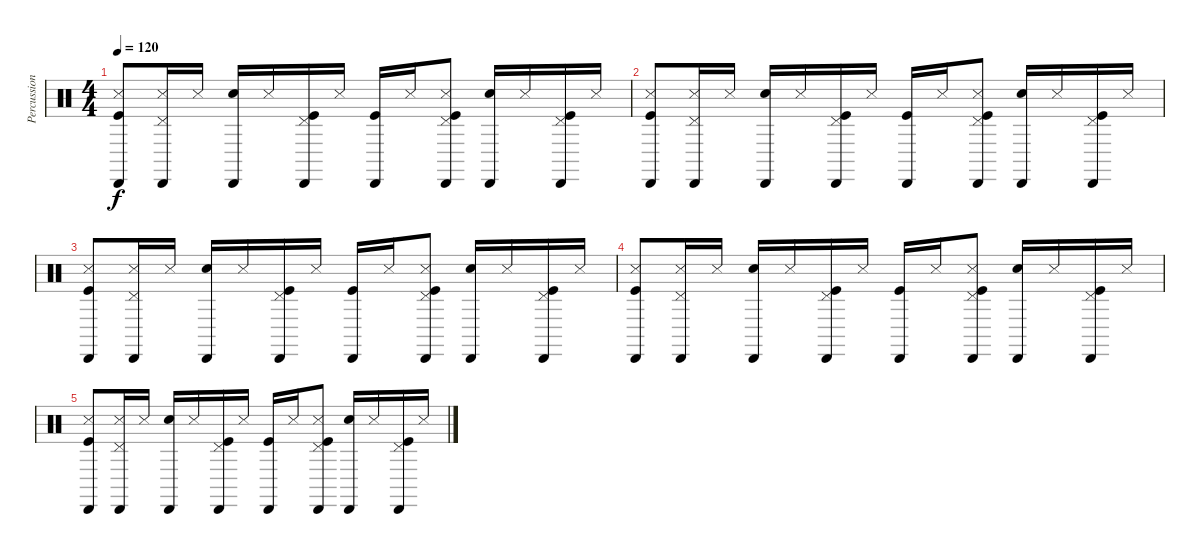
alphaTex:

\track ("Percussions" "Percussion") {instrument percussion}
\staff {score}
\articulation defaults
\ts (4 4)
\tempo 120
\clef neutral
\ks c
("Kick (hit)" "Cabasa (hit)" "Metronome (hit)").8{dy f} ("Cabasa (hit)" "Pedal Hi-Hat (hit)" "Metronome (hit)").16 "Metronome (hit)".16 ("Snare (hit) 2" "Cabasa (hit)").16 "Metronome (hit)".16 ("Kick (hit)" "Cabasa (hit)" "Pedal Hi-Hat (hit)").16 "Metronome (hit)".16 ("Kick (hit)" "Cabasa (hit)").16 "Metronome (hit)".16 ("Kick (hit)" "Cabasa (hit)" "Pedal Hi-Hat (hit)" "Metronome (hit)").8 ("Snare (hit) 2" "Cabasa (hit)").16 "Metronome (hit)".16 ("Kick (hit)" "Cabasa (hit)" "Pedal Hi-Hat (hit)").16 "Metronome (hit)".16 |
("Kick (hit)" "Cabasa (hit)" "Metronome (hit)").8 ("Cabasa (hit)" "Pedal Hi-Hat (hit)" "Metronome (hit)").16 "Metronome (hit)".16 ("Snare (hit) 2" "Cabasa (hit)").16 "Metronome (hit)".16 ("Kick (hit)" "Cabasa (hit)" "Pedal Hi-Hat (hit)").16 "Metronome (hit)".16 ("Kick (hit)" "Cabasa (hit)").16 "Metronome (hit)".16 ("Kick (hit)" "Cabasa (hit)" "Pedal Hi-Hat (hit)" "Metronome (hit)").8 ("Snare (hit) 2" "Cabasa (hit)").16 "Metronome (hit)".16 ("Kick (hit)" "Cabasa (hit)" "Pedal Hi-Hat (hit)").16 "Metronome (hit)".16 |
("Kick (hit)" "Cabasa (hit)" "Metronome (hit)").8 ("Cabasa (hit)" "Pedal Hi-Hat (hit)" "Metronome (hit)").16 "Metronome (hit)".16 ("Snare (hit) 2" "Cabasa (hit)").16 "Metronome (hit)".16 ("Kick (hit)" "Cabasa (hit)" "Pedal Hi-Hat (hit)").16 "Metronome (hit)".16 ("Kick (hit)" "Cabasa (hit)").16 "Metronome (hit)".16 ("Kick (hit)" "Cabasa (hit)" "Pedal Hi-Hat (hit)" "Metronome (hit)").8 ("Snare (hit) 2" "Cabasa (hit)").16 "Metronome (hit)".16 ("Kick (hit)" "Cabasa (hit)" "Pedal Hi-Hat (hit)").16 "Metronome (hit)".16 |
("Metronome (hit)" "Cabasa (hit)" "Kick (hit)").8 ("Cabasa (hit)" "Pedal Hi-Hat (hit)" "Metronome (hit)").16 "Metronome (hit)".16 ("Snare (hit) 2" "Cabasa (hit)").16 "Metronome (hit)".16 ("Kick (hit)" "Cabasa (hit)" "Pedal Hi-Hat (hit)").16 "Metronome (hit)".16 ("Kick (hit)" "Cabasa (hit)").16 "Metronome (hit)".16 ("Kick (hit)" "Cabasa (hit)" "Pedal Hi-Hat (hit)" "Metronome (hit)").8 ("Snare (hit) 2" "Cabasa (hit)").16 "Metronome (hit)".16 ("Kick (hit)" "Cabasa (hit)" "Pedal Hi-Hat (hit)").16 "Metronome (hit)".16 |
("Kick (hit)" "Cabasa (hit)" "Metronome (hit)").8 ("Cabasa (hit)" "Pedal Hi-Hat (hit)" "Metronome (hit)").16 "Metronome (hit)".16 ("Snare (hit) 2" "Cabasa (hit)").16 "Metronome (hit)".16 ("Kick (hit)" "Cabasa (hit)" "Pedal Hi-Hat (hit)").16 "Metronome (hit)".16 ("Kick (hit)" "Cabasa (hit)").16 "Metronome (hit)".16 ("Kick (hit)" "Cabasa (hit)" "Pedal Hi-Hat (hit)" "Metronome (hit)").8 ("Snare (hit) 2" "Cabasa (hit)").16 "Metronome (hit)".16 ("Kick (hit)" "Cabasa (hit)" "Pedal Hi-Hat (hit)").16 "Metronome (hit)".16
